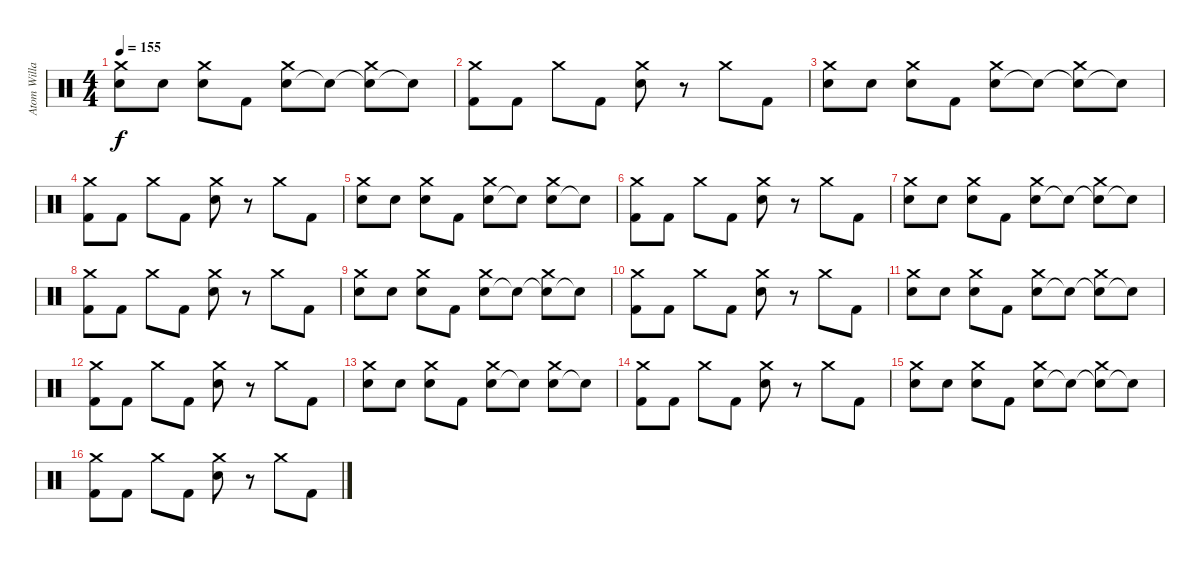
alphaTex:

\track ("Atom Willard Drums" "Atom Willa") {instrument percussion}
\staff {score}
\articulation defaults
\ts (4 4)
\tempo 155
\clef neutral
\ks c
("Snare (hit)" "Crash medium (hit)").8{dy f} "Electric Snare (hit)".8 ("Snare (hit)" "Crash medium (hit)").8 "Kick (hit) 2".8 ("Electric Snare (hit)" "Crash medium (hit)").8 "Snare (hit)"{t}.8 ("Snare (hit)"{t} "Crash medium (hit)").8 "Snare (hit)"{t}.8 |
("Kick (hit) 2" "Crash medium (hit)").8 "Kick (hit) 2".8 "Crash medium (hit)".8 "Kick (hit) 2".8 ("Electric Snare (hit)" "Crash medium (hit)").8 r.8 "Crash medium (hit)".8 "Kick (hit) 2".8 |
("Snare (hit)" "Crash medium (hit)").8 "Electric Snare (hit)".8 ("Snare (hit)" "Crash medium (hit)").8 "Kick (hit) 2".8 ("Electric Snare (hit)" "Crash medium (hit)").8 "Snare (hit)"{t}.8 ("Snare (hit)"{t} "Crash medium (hit)").8 "Snare (hit)"{t}.8 |
("Kick (hit) 2" "Crash medium (hit)").8 "Kick (hit) 2".8 "Crash medium (hit)".8 "Kick (hit) 2".8 ("Electric Snare (hit)" "Crash medium (hit)").8 r.8 "Crash medium (hit)".8 "Kick (hit) 2".8 |
("Snare (hit)" "Crash medium (hit)").8 "Electric Snare (hit)".8 ("Snare (hit)" "Crash medium (hit)").8 "Kick (hit) 2".8 ("Electric Snare (hit)" "Crash medium (hit)").8 "Snare (hit)"{t}.8 ("Electric Snare (hit)" "Crash medium (hit)").8 "Snare (hit)"{t}.8 |
("Kick (hit) 2" "Crash medium (hit)").8 "Kick (hit) 2".8 "Crash medium (hit)".8 "Kick (hit) 2".8 ("Electric Snare (hit)" "Crash medium (hit)").8 r.8 "Crash medium (hit)".8 "Kick (hit) 2".8 |
("Snare (hit)" "Crash medium (hit)").8 "Electric Snare (hit)".8 ("Snare (hit)" "Crash medium (hit)").8 "Kick (hit) 2".8 ("Electric Snare (hit)" "Crash medium (hit)").8 "Snare (hit)"{t}.8 ("Snare (hit)"{t} "Crash medium (hit)").8 "Snare (hit)"{t}.8 |
("Kick (hit) 2" "Crash medium (hit)").8 "Kick (hit) 2".8 "Crash medium (hit)".8 "Kick (hit) 2".8 ("Electric Snare (hit)" "Crash medium (hit)").8 r.8 "Crash medium (hit)".8 "Kick (hit) 2".8 |
("Snare (hit)" "Crash medium (hit)").8 "Electric Snare (hit)".8 ("Snare (hit)" "Crash medium (hit)").8 "Kick (hit) 2".8 ("Electric Snare (hit)" "Crash medium (hit)").8 "Snare (hit)"{t}.8 ("Snare (hit)"{t} "Crash medium (hit)").8 "Snare (hit)"{t}.8 |
("Kick (hit) 2" "Crash medium (hit)").8 "Kick (hit) 2".8 "Crash medium (hit)".8 "Kick (hit) 2".8 ("Electric Snare (hit)" "Crash medium (hit)").8 r.8 "Crash medium (hit)".8 "Kick (hit) 2".8 |
("Snare (hit)" "Crash medium (hit)").8 "Electric Snare (hit)".8 ("Snare (hit)" "Crash medium (hit)").8 "Kick (hit) 2".8 ("Electric Snare (hit)" "Crash medium (hit)").8 "Snare (hit)"{t}.8 ("Snare (hit)"{t} "Crash medium (hit)").8 "Snare (hit)"{t}.8 |
("Kick (hit) 2" "Crash medium (hit)").8 "Kick (hit) 2".8 "Crash medium (hit)".8 "Kick (hit) 2".8 ("Electric Snare (hit)" "Crash medium (hit)").8 r.8 "Crash medium (hit)".8 "Kick (hit) 2".8 |
("Snare (hit)" "Crash medium (hit)").8 "Electric Snare (hit)".8 ("Snare (hit)" "Crash medium (hit)").8 "Kick (hit) 2".8 ("Electric Snare (hit)" "Crash medium (hit)").8 "Snare (hit)"{t}.8 ("Electric Snare (hit)" "Crash medium (hit)").8 "Snare (hit)"{t}.8 |
("Kick (hit) 2" "Crash medium (hit)").8 "Kick (hit) 2".8 "Crash medium (hit)".8 "Kick (hit) 2".8 ("Electric Snare (hit)" "Crash medium (hit)").8 r.8 "Crash medium (hit)".8 "Kick (hit) 2".8 |
("Snare (hit)" "Crash medium (hit)").8 "Electric Snare (hit)".8 ("Snare (hit)" "Crash medium (hit)").8 "Kick (hit) 2".8 ("Electric Snare (hit)" "Crash medium (hit)").8 "Snare (hit)"{t}.8 ("Snare (hit)"{t} "Crash medium (hit)").8 "Snare (hit)"{t}.8 |
("Kick (hit) 2" "Crash medium (hit)").8 "Kick (hit) 2".8 "Crash medium (hit)".8 "Kick (hit) 2".8 ("Electric Snare (hit)" "Crash medium (hit)").8 r.8 "Crash medium (hit)".8 "Kick (hit) 2".8
